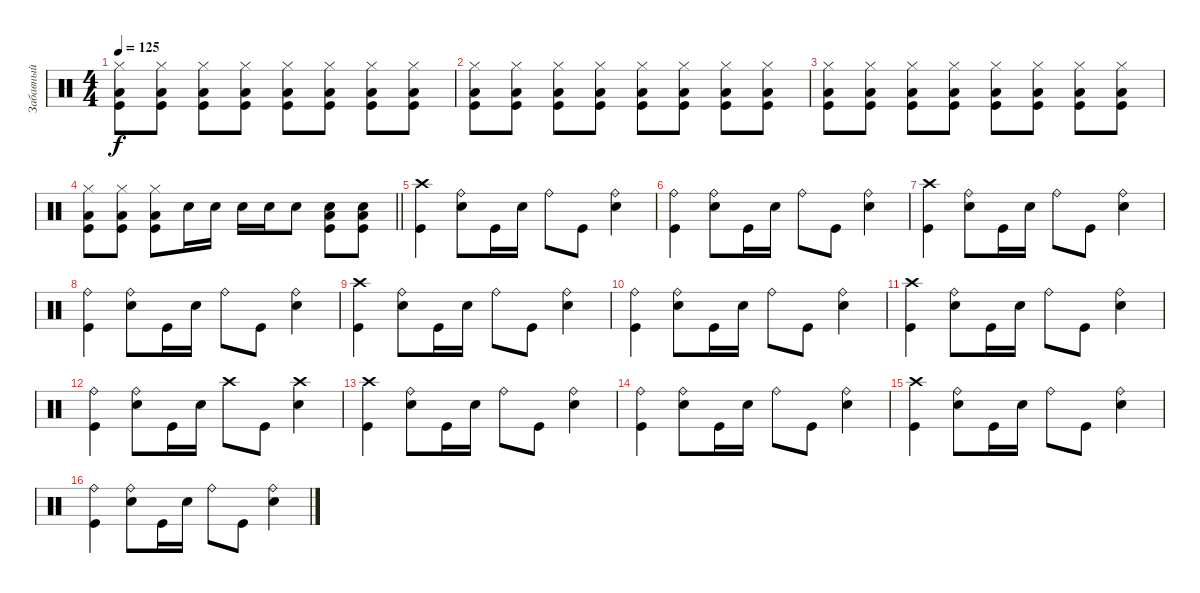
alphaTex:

\track ("Забавный" "Забавный") {instrument percussion}
\staff {score}
\articulation defaults
\ts (4 4)
\tempo 125
\clef neutral
\ks c
("Hi-Hat (closed)" "Low Tom (hit)" "Kick (hit)").8{dy f} ("Hi-Hat (closed)" "Low Tom (hit)" "Kick (hit)").8 ("Hi-Hat (closed)" "Low Tom (hit)" "Kick (hit)").8 ("Hi-Hat (closed)" "Low Tom (hit)" "Kick (hit)").8 ("Hi-Hat (closed)" "Low Tom (hit)" "Kick (hit)").8 ("Hi-Hat (closed)" "Low Tom (hit)" "Kick (hit)").8 ("Hi-Hat (closed)" "Low Tom (hit)" "Kick (hit)").8 ("Hi-Hat (closed)" "Low Tom (hit)" "Kick (hit)").8 |
("Hi-Hat (closed)" "Low Tom (hit)" "Kick (hit)").8 ("Hi-Hat (closed)" "Low Tom (hit)" "Kick (hit)").8 ("Hi-Hat (closed)" "Low Tom (hit)" "Kick (hit)").8 ("Hi-Hat (closed)" "Low Tom (hit)" "Kick (hit)").8 ("Hi-Hat (closed)" "Low Tom (hit)" "Kick (hit)").8 ("Hi-Hat (closed)" "Low Tom (hit)" "Kick (hit)").8 ("Hi-Hat (closed)" "Low Tom (hit)" "Kick (hit)").8 ("Hi-Hat (closed)" "Low Tom (hit)" "Kick (hit)").8 |
("Hi-Hat (closed)" "Low Tom (hit)" "Kick (hit)").8 ("Hi-Hat (closed)" "Low Tom (hit)" "Kick (hit)").8 ("Hi-Hat (closed)" "Low Tom (hit)" "Kick (hit)").8 ("Hi-Hat (closed)" "Low Tom (hit)" "Kick (hit)").8 ("Hi-Hat (closed)" "Low Tom (hit)" "Kick (hit)").8 ("Hi-Hat (closed)" "Low Tom (hit)" "Kick (hit)").8 ("Hi-Hat (closed)" "Low Tom (hit)" "Kick (hit)").8 ("Hi-Hat (closed)" "Low Tom (hit)" "Kick (hit)").8 |
\barLineRight lightlight
("Hi-Hat (closed)" "Low Tom (hit)" "Kick (hit)").8 ("Hi-Hat (closed)" "Low Tom (hit)" "Kick (hit)").8 ("Hi-Hat (closed)" "Low Tom (hit)" "Kick (hit)").8 "Electric Snare (hit)".16 "Electric Snare (hit)".16 "Electric Snare (hit)".16 "Electric Snare (hit)".16 "Electric Snare (hit)".8 ("Electric Snare (hit)" "Low Tom (hit)" "Kick (hit)").8 ("Electric Snare (hit)" "Low Tom (hit)" "Kick (hit)").8 |
("Crash high (hit)" "Kick (hit)").4 ("Ride (bell)" "Electric Snare (hit)").8 "Kick (hit)".16 "Electric Snare (hit)".16 "Ride (bell)".8 "Kick (hit)".8 ("Ride (bell)" "Electric Snare (hit)").4 |
("Ride (bell)" "Kick (hit)").4 ("Ride (bell)" "Electric Snare (hit)").8 "Kick (hit)".16 "Electric Snare (hit)".16 "Ride (bell)".8 "Kick (hit)".8 ("Ride (bell)" "Electric Snare (hit)").4 |
("Crash high (hit)" "Kick (hit)").4 ("Ride (bell)" "Electric Snare (hit)").8 "Kick (hit)".16 "Electric Snare (hit)".16 "Ride (bell)".8 "Kick (hit)".8 ("Ride (bell)" "Electric Snare (hit)").4 |
("Ride (bell)" "Kick (hit)").4 ("Ride (bell)" "Electric Snare (hit)").8 "Kick (hit)".16 "Electric Snare (hit)".16 "Ride (bell)".8 "Kick (hit)".8 ("Ride (bell)" "Electric Snare (hit)").4 |
("Crash high (hit)" "Kick (hit)").4 ("Ride (bell)" "Electric Snare (hit)").8 "Kick (hit)".16 "Electric Snare (hit)".16 "Ride (bell)".8 "Kick (hit)".8 ("Ride (bell)" "Electric Snare (hit)").4 |
("Ride (bell)" "Kick (hit)").4 ("Ride (bell)" "Electric Snare (hit)").8 "Kick (hit)".16 "Electric Snare (hit)".16 "Ride (bell)".8 "Kick (hit)".8 ("Ride (bell)" "Electric Snare (hit)").4 |
("Crash high (hit)" "Kick (hit)").4 ("Ride (bell)" "Electric Snare (hit)").8 "Kick (hit)".16 "Electric Snare (hit)".16 "Ride (bell)".8 "Kick (hit)".8 ("Ride (bell)" "Electric Snare (hit)").4 |
("Ride (bell)" "Kick (hit)").4 ("Ride (bell)" "Electric Snare (hit)").8 "Kick (hit)".16 "Electric Snare (hit)".16 "Crash high (hit)".8 "Kick (hit)".8 ("Crash high (hit)" "Electric Snare (hit)").4 |
("Crash high (hit)" "Kick (hit)").4 ("Ride (bell)" "Electric Snare (hit)").8 "Kick (hit)".16 "Electric Snare (hit)".16 "Ride (bell)".8 "Kick (hit)".8 ("Ride (bell)" "Electric Snare (hit)").4 |
("Ride (bell)" "Kick (hit)").4 ("Ride (bell)" "Electric Snare (hit)").8 "Kick (hit)".16 "Electric Snare (hit)".16 "Ride (bell)".8 "Kick (hit)".8 ("Ride (bell)" "Electric Snare (hit)").4 |
("Crash high (hit)" "Kick (hit)").4 ("Ride (bell)" "Electric Snare (hit)").8 "Kick (hit)".16 "Electric Snare (hit)".16 "Ride (bell)".8 "Kick (hit)".8 ("Ride (bell)" "Electric Snare (hit)").4 |
("Ride (bell)" "Kick (hit)").4 ("Ride (bell)" "Electric Snare (hit)").8 "Kick (hit)".16 "Electric Snare (hit)".16 "Ride (bell)".8 "Kick (hit)".8 ("Ride (bell)" "Electric Snare (hit)").4
